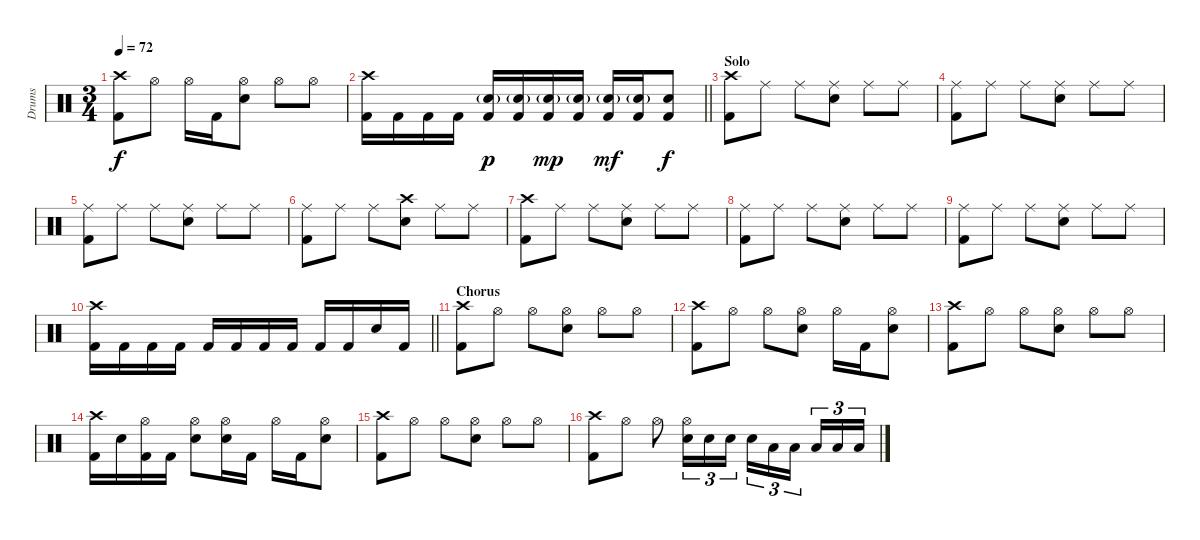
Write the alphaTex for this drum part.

\track ("Drums" "Drums") {instrument percussion}
\staff {score}
\articulation defaults
\ts (3 4)
\tempo 72
\clef neutral
\ks c
("Crash high (hit)" "Kick (hit) 2").8{dy f} "Hi-Hat (open)".8 "Hi-Hat (open)".16 "Kick (hit) 2".16 ("Hi-Hat (open)" "Electric Snare (hit)").8 "Hi-Hat (open)".8 "Hi-Hat (open)".8 |
\barLineRight lightlight
("Crash high (hit)" "Kick (hit) 2").16 "Kick (hit) 2".16 "Kick (hit) 2".16 "Kick (hit) 2".16 ("Electric Snare (hit)"{g} "Kick (hit) 2").16{dy p} ("Electric Snare (hit)"{g} "Kick (hit) 2").16 ("Electric Snare (hit)"{g} "Kick (hit) 2").16{dy mp} ("Electric Snare (hit)"{g} "Kick (hit) 2").16 ("Electric Snare (hit)"{g} "Kick (hit) 2").16{dy mf} ("Electric Snare (hit)"{g} "Kick (hit) 2").16 ("Electric Snare (hit)" "Kick (hit) 2").8{dy f} |
\section ("" "Solo")
("Crash high (hit)" "Kick (hit) 2").8 "Ride (middle)".8 "Ride (middle)".8 ("Ride (middle)" "Electric Snare (hit)").8 "Ride (middle)".8 "Ride (middle)".8 |
("Ride (middle)" "Kick (hit) 2").8 "Ride (middle)".8 "Ride (middle)".8 ("Ride (middle)" "Electric Snare (hit)").8 "Ride (middle)".8 "Ride (middle)".8 |
("Ride (middle)" "Kick (hit) 2").8 "Ride (middle)".8 "Ride (middle)".8 ("Ride (middle)" "Electric Snare (hit)").8 "Ride (middle)".8 "Ride (middle)".8 |
("Ride (middle)" "Kick (hit) 2").8 "Ride (middle)".8 "Ride (middle)".8 ("Crash high (hit)" "Electric Snare (hit)").8 "Ride (middle)".8 "Ride (middle)".8 |
("Crash high (hit)" "Kick (hit) 2").8 "Ride (middle)".8 "Ride (middle)".8 ("Ride (middle)" "Electric Snare (hit)").8 "Ride (middle)".8 "Ride (middle)".8 |
("Ride (middle)" "Kick (hit) 2").8 "Ride (middle)".8 "Ride (middle)".8 ("Ride (middle)" "Electric Snare (hit)").8 "Ride (middle)".8 "Ride (middle)".8 |
("Ride (middle)" "Kick (hit) 2").8 "Ride (middle)".8 "Ride (middle)".8 ("Ride (middle)" "Electric Snare (hit)").8 "Ride (middle)".8 "Ride (middle)".8 |
\barLineRight lightlight
("Crash high (hit)" "Kick (hit) 2").16 "Kick (hit) 2".16 "Kick (hit) 2".16 "Kick (hit) 2".16 "Kick (hit) 2".16 "Kick (hit) 2".16 "Kick (hit) 2".16 "Kick (hit) 2".16 "Kick (hit) 2".16 "Kick (hit) 2".16 "Electric Snare (hit)".16 "Kick (hit) 2".16 |
\section ("" "Chorus")
("Crash high (hit)" "Kick (hit) 2").8 "Hi-Hat (open)".8 "Hi-Hat (open)".8 ("Hi-Hat (open)" "Electric Snare (hit)").8 "Hi-Hat (open)".8 "Hi-Hat (open)".8 |
("Crash high (hit)" "Kick (hit) 2").8 "Hi-Hat (open)".8 "Hi-Hat (open)".8 ("Hi-Hat (open)" "Electric Snare (hit)").8 "Hi-Hat (open)".16 "Kick (hit) 2".16 ("Hi-Hat (open)" "Electric Snare (hit)").8 |
("Crash high (hit)" "Kick (hit) 2").8 "Hi-Hat (open)".8 "Hi-Hat (open)".8 ("Hi-Hat (open)" "Electric Snare (hit)").8 "Hi-Hat (open)".8 "Hi-Hat (open)".8 |
("Crash high (hit)" "Kick (hit) 2").16 "Electric Snare (hit)".16 ("Hi-Hat (open)" "Kick (hit) 2").16 "Kick (hit) 2".16 ("Hi-Hat (open)" "Electric Snare (hit)").8 ("Hi-Hat (open)" "Electric Snare (hit)").16 "Kick (hit) 2".16 "Hi-Hat (open)".16 "Kick (hit) 2".16 ("Hi-Hat (open)" "Electric Snare (hit)").8 |
("Crash high (hit)" "Kick (hit) 2").8 "Hi-Hat (open)".8 "Hi-Hat (open)".8 ("Hi-Hat (open)" "Electric Snare (hit)").8 "Hi-Hat (open)".8 "Hi-Hat (open)".8 |
("Crash high (hit)" "Kick (hit) 2").8 "Hi-Hat (open)".8 "Hi-Hat (open)".8 ("Hi-Hat (open)" "Electric Snare (hit)").16{tu (3 2)} "Electric Snare (hit)".16{tu (3 2)} "Electric Snare (hit)".16{tu (3 2)} "Electric Snare (hit)".16{tu (3 2)} "Low Tom (hit)".16{tu (3 2)} "Low Tom (hit)".16{tu (3 2)} "Low Tom (hit)".16{tu (3 2)} "Low Floor Tom (hit)".16{tu (3 2)} "Low Floor Tom (hit)".16{tu (3 2)}
